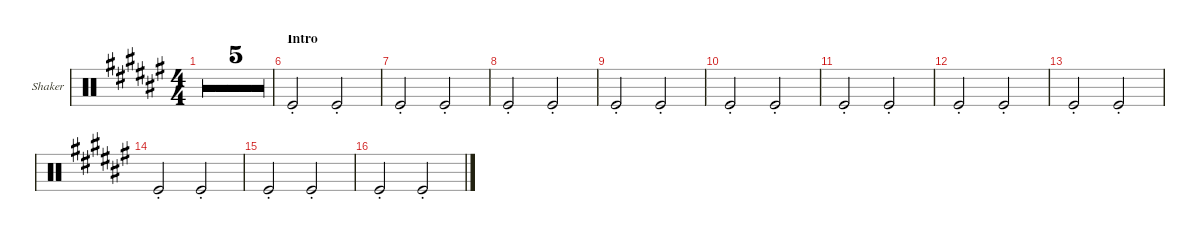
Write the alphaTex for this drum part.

\defaultSystemsLayout 4
\hideDynamics
\bracketExtendMode groupsimilarinstruments
\multiBarRest
\firstSystemTrackNameOrientation horizontal
\otherSystemsTrackNameOrientation horizontal
\track ("Shaker" "Shaker") {multiBarRest instrument percussion}
\staff {score}
\articulation defaults
\ts (4 4)
\tempo 80
\clef neutral
\ks f#
r.1{dy mp} |
r.1 |
r.1 |
r.1 |
r.1 |
\section ("" "Intro")
"Kick (hit)"{st}.2 "Kick (hit)"{st}.2 |
"Kick (hit)"{st}.2 "Kick (hit)"{st}.2 |
"Kick (hit)"{st}.2 "Kick (hit)"{st}.2 |
"Kick (hit)"{st}.2 "Kick (hit)"{st}.2 |
"Kick (hit)"{st}.2 "Kick (hit)"{st}.2 |
"Kick (hit)"{st}.2 "Kick (hit)"{st}.2 |
"Kick (hit)"{st}.2 "Kick (hit)"{st}.2 |
"Kick (hit)"{st}.2 "Kick (hit)"{st}.2 |
"Kick (hit)"{st}.2 "Kick (hit)"{st}.2 |
"Kick (hit)"{st}.2 "Kick (hit)"{st}.2 |
"Kick (hit)"{st}.2 "Kick (hit)"{st}.2
